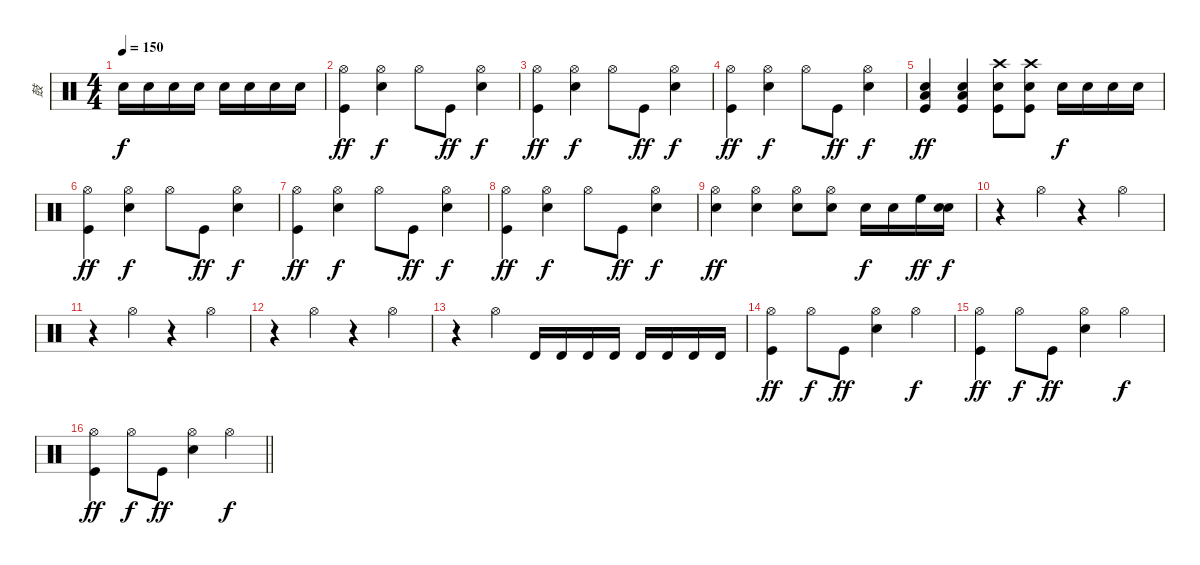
\track ("鼓" "鼓") {instrument percussion}
\staff {score}
\articulation defaults
\ts (4 4)
\tempo 150
\clef neutral
\ks c "Snare (hit) 2".16{dy f} "Snare (hit) 2".16 "Snare (hit) 2".16 "Snare (hit) 2".16 "Snare (hit) 2".16 "Snare (hit) 2".16 "Snare (hit) 2".16 "Snare (hit) 2".16
|
("Hi-Hat (open)" "Kick (hit)").4{dy ff} ("Hi-Hat (open)" "Electric Snare (hit)").4{dy f} "Hi-Hat (open)".8 "Kick (hit)".8{dy ff} ("Hi-Hat (open)" "Electric Snare (hit)").4{dy f} |
("Hi-Hat (open)" "Kick (hit)").4{dy ff} ("Hi-Hat (open)" "Electric Snare (hit)").4{dy f} "Hi-Hat (open)".8 "Kick (hit)".8{dy ff} ("Hi-Hat (open)" "Electric Snare (hit)").4{dy f} |
("Hi-Hat (open)" "Kick (hit)").4{dy ff} ("Hi-Hat (open)" "Electric Snare (hit)").4{dy f} "Hi-Hat (open)".8 "Kick (hit)".8{dy ff} ("Hi-Hat (open)" "Electric Snare (hit)").4{dy f} |
("Low Tom (hit)" "Electric Snare (hit)" "Kick (hit)").4{dy ff} ("Low Tom (hit)" "Electric Snare (hit)" "Kick (hit)").4 ("Crash high (hit)" "Electric Snare (hit)" "Kick (hit)").8 ("Crash high (hit)" "Electric Snare (hit)" "Kick (hit)").8 "Snare (hit) 2".16{dy f} "Snare (hit) 2".16 "Snare (hit) 2".16 "Snare (hit) 2".16 |
("Hi-Hat (open)" "Kick (hit)").4{dy ff} ("Hi-Hat (open)" "Electric Snare (hit)").4{dy f} "Hi-Hat (open)".8 "Kick (hit)".8{dy ff} ("Hi-Hat (open)" "Electric Snare (hit)").4{dy f} |
("Hi-Hat (open)" "Kick (hit)").4{dy ff} ("Hi-Hat (open)" "Electric Snare (hit)").4{dy f} "Hi-Hat (open)".8 "Kick (hit)".8{dy ff} ("Hi-Hat (open)" "Electric Snare (hit)").4{dy f} |
("Hi-Hat (open)" "Kick (hit)").4{dy ff} ("Hi-Hat (open)" "Electric Snare (hit)").4{dy f} "Hi-Hat (open)".8 "Kick (hit)".8{dy ff} ("Hi-Hat (open)" "Electric Snare (hit)").4{dy f} |
("Hi-Hat (open)" "Electric Snare (hit)").4{dy ff} ("Hi-Hat (open)" "Electric Snare (hit)").4 ("Hi-Hat (open)" "Electric Snare (hit)").8 ("Hi-Hat (open)" "Electric Snare (hit)").8 "Snare (hit) 2".16{dy f} "Snare (hit) 2".16 "High Floor Tom (hit)".16{dy ff} ("Electric Snare (hit)" "Snare (hit) 2").16{dy f} |
r.4 "Hi-Hat (open)".4 r.4 "Hi-Hat (open)".4 |
r.4 "Hi-Hat (open)".4 r.4 "Hi-Hat (open)".4 |
r.4 "Hi-Hat (open)".4 r.4 "Hi-Hat (open)".4 |
r.4 "Hi-Hat (open)".4 "Timbale high (hit)".16 "Timbale high (hit)".16 "Timbale high (hit)".16 "Timbale high (hit)".16 "Timbale high (hit)".16 "Timbale high (hit)".16 "Timbale high (hit)".16 "Timbale high (hit)".16 |
("Hi-Hat (open)" "Kick (hit)").4{dy ff} "Hi-Hat (open)".8{dy f} "Kick (hit)".8{dy ff} ("Hi-Hat (open)" "Electric Snare (hit)").4 "Hi-Hat (open)".4{dy f} |
("Hi-Hat (open)" "Kick (hit)").4{dy ff} "Hi-Hat (open)".8{dy f} "Kick (hit)".8{dy ff} ("Hi-Hat (open)" "Electric Snare (hit)").4 "Hi-Hat (open)".4{dy f} |
\barLineRight lightlight
("Hi-Hat (open)" "Kick (hit)").4{dy ff} "Hi-Hat (open)".8{dy f} "Kick (hit)".8{dy ff} ("Hi-Hat (open)" "Electric Snare (hit)").4 "Hi-Hat (open)".4{dy f}
